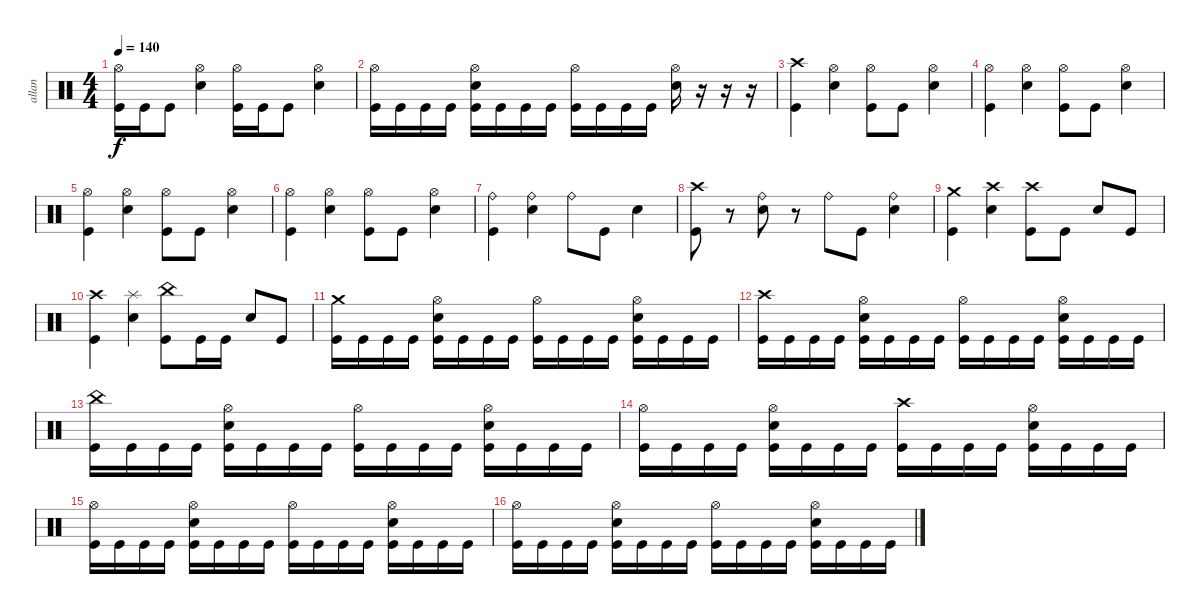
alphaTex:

\track ("allan" "allan") {instrument percussion}
\staff {score}
\articulation defaults
\ts (4 4)
\tempo 140
\clef neutral
\ks c
("Hi-Hat (open)" "Kick (hit)").16{dy f} "Kick (hit)".16 "Kick (hit)".8 ("Hi-Hat (open)" "Snare (hit) 2").4 ("Hi-Hat (open)" "Kick (hit)").16 "Kick (hit)".16 "Kick (hit)".8 ("Hi-Hat (open)" "Snare (hit) 2").4 |
("Hi-Hat (open)" "Kick (hit)").16 "Kick (hit)".16 "Kick (hit)".16 "Kick (hit)".16 ("Hi-Hat (open)" "Snare (hit) 2" "Kick (hit)").16 "Kick (hit)".16 "Kick (hit)".16 "Kick (hit)".16 ("Hi-Hat (open)" "Kick (hit)").16 "Kick (hit)".16 "Kick (hit)".16 "Kick (hit)".16 ("Hi-Hat (open)" "Snare (hit) 2").16 r.16 r.16 r.16 |
("Crash high (hit)" "Kick (hit)").4 ("Hi-Hat (open)" "Snare (hit) 2").4 ("Hi-Hat (open)" "Kick (hit)").8 "Kick (hit)".8 ("Hi-Hat (open)" "Snare (hit) 2").4 |
("Hi-Hat (open)" "Kick (hit)").4 ("Hi-Hat (open)" "Snare (hit) 2").4 ("Hi-Hat (open)" "Kick (hit)").8 "Kick (hit)".8 ("Hi-Hat (open)" "Snare (hit) 2").4 |
("Hi-Hat (open)" "Kick (hit)").4 ("Snare (hit) 2" "Hi-Hat (open)").4 ("Hi-Hat (open)" "Kick (hit)").8 "Kick (hit)".8 ("Hi-Hat (open)" "Snare (hit) 2").4 |
("Hi-Hat (open)" "Kick (hit)").4 ("Hi-Hat (open)" "Snare (hit) 2").4 ("Hi-Hat (open)" "Kick (hit)").8 "Kick (hit)".8 ("Hi-Hat (open)" "Snare (hit) 2").4 |
("Ride (bell)" "Kick (hit)").4 ("Snare (hit) 2" "Ride (bell)").4 "Ride (bell)".8 "Kick (hit)".8 "Snare (hit) 2".4 |
("Crash high (hit)" "Kick (hit)").8 r.8 ("Ride (bell)" "Snare (hit) 2").8 r.8 "Ride (bell)".8 "Kick (hit)".8 ("Ride (bell)" "Snare (hit) 2").4 |
("Crash medium (hit)" "Kick (hit)").4 ("Crash high (hit)" "Snare (hit) 2").4 ("Crash high (hit)" "Kick (hit)").8 "Kick (hit)".8 "Snare (hit) 2".8 "Kick (hit)".8 |
("Crash high (hit)" "Kick (hit)").4 ("Splash (hit)" "Snare (hit) 2").4 ("China (hit)" "Kick (hit)").8 "Kick (hit)".16 "Kick (hit)".16 "Snare (hit) 2".8 "Kick (hit)".8 |
("Crash medium (hit)" "Kick (hit)").16 "Kick (hit)".16 "Kick (hit)".16 "Kick (hit)".16 ("Hi-Hat (open)" "Snare (hit) 2" "Kick (hit)").16 "Kick (hit)".16 "Kick (hit)".16 "Kick (hit)".16 ("Hi-Hat (open)" "Kick (hit)").16 "Kick (hit)".16 "Kick (hit)".16 "Kick (hit)".16 ("Hi-Hat (open)" "Snare (hit) 2" "Kick (hit)").16 "Kick (hit)".16 "Kick (hit)".16 "Kick (hit)".16 |
("Crash high (hit)" "Kick (hit)").16 "Kick (hit)".16 "Kick (hit)".16 "Kick (hit)".16 ("Hi-Hat (open)" "Snare (hit) 2" "Kick (hit)").16 "Kick (hit)".16 "Kick (hit)".16 "Kick (hit)".16 ("Hi-Hat (open)" "Kick (hit)").16 "Kick (hit)".16 "Kick (hit)".16 "Kick (hit)".16 ("Hi-Hat (open)" "Snare (hit) 2" "Kick (hit)").16 "Kick (hit)".16 "Kick (hit)".16 "Kick (hit)".16 |
("China (hit)" "Kick (hit)").16 "Kick (hit)".16 "Kick (hit)".16 "Kick (hit)".16 ("Hi-Hat (open)" "Snare (hit) 2" "Kick (hit)").16 "Kick (hit)".16 "Kick (hit)".16 "Kick (hit)".16 ("Hi-Hat (open)" "Kick (hit)").16 "Kick (hit)".16 "Kick (hit)".16 "Kick (hit)".16 ("Hi-Hat (open)" "Snare (hit) 2" "Kick (hit)").16 "Kick (hit)".16 "Kick (hit)".16 "Kick (hit)".16 |
("Hi-Hat (open)" "Kick (hit)").16 "Kick (hit)".16 "Kick (hit)".16 "Kick (hit)".16 ("Hi-Hat (open)" "Snare (hit) 2" "Kick (hit)").16 "Kick (hit)".16 "Kick (hit)".16 "Kick (hit)".16 ("Crash high (hit)" "Kick (hit)").16 "Kick (hit)".16 "Kick (hit)".16 "Kick (hit)".16 ("Hi-Hat (open)" "Snare (hit) 2" "Kick (hit)").16 "Kick (hit)".16 "Kick (hit)".16 "Kick (hit)".16 |
("Hi-Hat (open)" "Kick (hit)").16 "Kick (hit)".16 "Kick (hit)".16 "Kick (hit)".16 ("Hi-Hat (open)" "Snare (hit) 2" "Kick (hit)").16 "Kick (hit)".16 "Kick (hit)".16 "Kick (hit)".16 ("Hi-Hat (open)" "Kick (hit)").16 "Kick (hit)".16 "Kick (hit)".16 "Kick (hit)".16 ("Hi-Hat (open)" "Snare (hit) 2" "Kick (hit)").16 "Kick (hit)".16 "Kick (hit)".16 "Kick (hit)".16 |
("Hi-Hat (open)" "Kick (hit)").16 "Kick (hit)".16 "Kick (hit)".16 "Kick (hit)".16 ("Hi-Hat (open)" "Snare (hit) 2" "Kick (hit)").16 "Kick (hit)".16 "Kick (hit)".16 "Kick (hit)".16 ("Hi-Hat (open)" "Kick (hit)").16 "Kick (hit)".16 "Kick (hit)".16 "Kick (hit)".16 ("Hi-Hat (open)" "Snare (hit) 2" "Kick (hit)").16 "Kick (hit)".16 "Kick (hit)".16 "Kick (hit)".16
